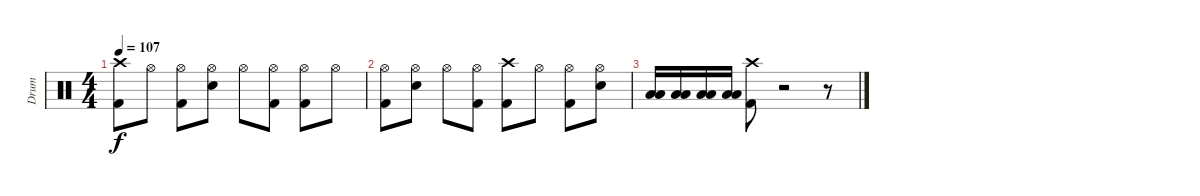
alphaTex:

\track ("Drum" "Drum") {instrument percussion}
\staff {score}
\articulation defaults
\ts (4 4)
\tempo 107
\clef neutral
\ks c
("Crash high (hit)" "Kick (hit) 2").8{dy f} "Hi-Hat (open)".8 ("Hi-Hat (open)" "Kick (hit) 2").8 ("Hi-Hat (open)" "Electric Snare (hit)").8 "Hi-Hat (open)".8 ("Hi-Hat (open)" "Kick (hit) 2").8 ("Hi-Hat (open)" "Kick (hit) 2").8 "Hi-Hat (open)".8 |
("Hi-Hat (open)" "Kick (hit) 2").8 ("Hi-Hat (open)" "Electric Snare (hit)").8 "Hi-Hat (open)".8 ("Hi-Hat (open)" "Kick (hit) 2").8 ("Crash high (hit)" "Kick (hit) 2").8 "Hi-Hat (open)".8 ("Hi-Hat (open)" "Kick (hit) 2").8 ("Hi-Hat (open)" "Electric Snare (hit)").8 |
("Low Tom (hit)" "Low Floor Tom (hit)").16 ("Low Tom (hit)" "Low Floor Tom (hit)").16 ("Low Tom (hit)" "Low Floor Tom (hit)").16 ("Low Tom (hit)" "Low Floor Tom (hit)").16 ("Crash high (hit)" "Kick (hit) 2").8 r.2 r.8
